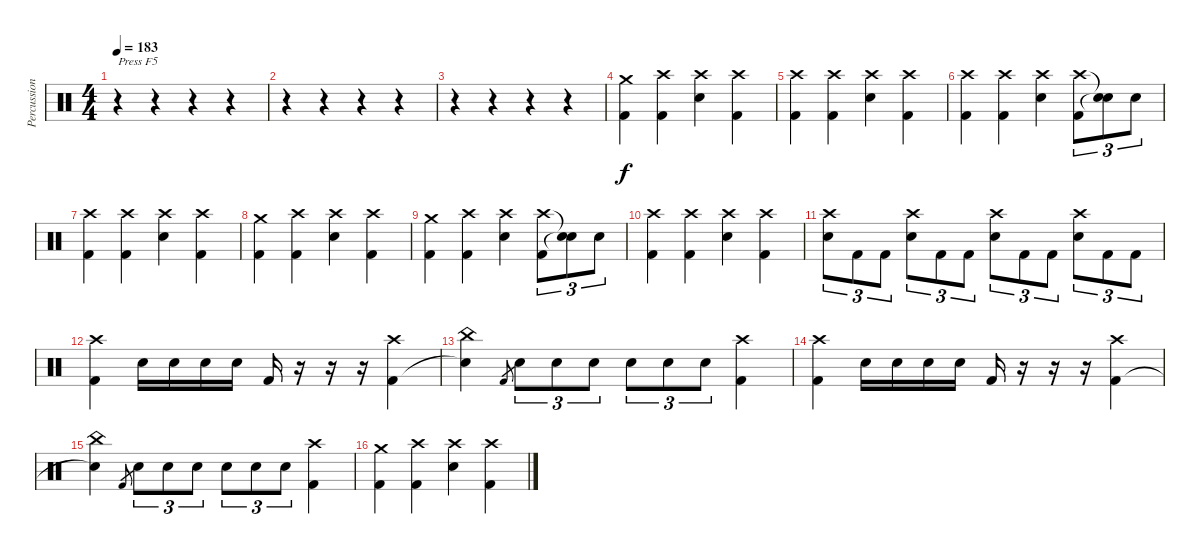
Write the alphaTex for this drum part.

\track ("Percussion" "Percussion") {instrument percussion}
\staff {score}
\articulation defaults
\ts (4 4)
\tempo 183
\clef neutral
\ks c
r.4{txt "Press F5" dy f} r.4 r.4 r.4 |
r.4 r.4 r.4 r.4 |
r.4 r.4 r.4 r.4 |
("Crash medium (hit)" "Kick (hit) 2").4 ("Crash high (hit)" "Kick (hit) 2").4 ("Crash high (hit)" "Electric Snare (hit)").4 ("Crash high (hit)" "Kick (hit) 2").4 |
("Crash high (hit)" "Kick (hit) 2").4 ("Crash high (hit)" "Kick (hit) 2").4 ("Crash high (hit)" "Electric Snare (hit)").4 ("Crash high (hit)" "Kick (hit) 2").4 |
("Crash high (hit)" "Kick (hit) 2").4 ("Crash high (hit)" "Kick (hit) 2").4 ("Crash high (hit)" "Electric Snare (hit)").4 ("Crash high (hit)" "Kick (hit) 2").8{tu (3 2)} ("Snare (hit)"{t} "Snare (hit)"{t}).8{tu (3 2)} "Electric Snare (hit)".8{tu (3 2)} |
("Crash high (hit)" "Kick (hit) 2").4 ("Crash high (hit)" "Kick (hit) 2").4 ("Crash high (hit)" "Electric Snare (hit)").4 ("Crash high (hit)" "Kick (hit) 2").4 |
("Crash medium (hit)" "Kick (hit) 2").4 ("Crash high (hit)" "Kick (hit) 2").4 ("Crash high (hit)" "Electric Snare (hit)").4 ("Crash high (hit)" "Kick (hit) 2").4 |
("Crash medium (hit)" "Kick (hit) 2").4 ("Crash high (hit)" "Kick (hit) 2").4 ("Crash high (hit)" "Electric Snare (hit)").4 ("Crash high (hit)" "Kick (hit) 2").8{tu (3 2)} ("Snare (hit)"{t} "Snare (hit)"{t}).8{tu (3 2)} "Electric Snare (hit)".8{tu (3 2)} |
("Crash high (hit)" "Kick (hit) 2").4 ("Crash high (hit)" "Kick (hit) 2").4 ("Crash high (hit)" "Electric Snare (hit)").4 ("Crash high (hit)" "Kick (hit) 2").4 |
("Crash high (hit)" "Electric Snare (hit)").8{tu (3 2)} "Kick (hit) 2".8{tu (3 2)} "Kick (hit) 2".8{tu (3 2)} ("Crash high (hit)" "Electric Snare (hit)").8{tu (3 2)} "Kick (hit) 2".8{tu (3 2)} "Kick (hit) 2".8{tu (3 2)} ("Crash high (hit)" "Electric Snare (hit)").8{tu (3 2)} "Kick (hit) 2".8{tu (3 2)} "Kick (hit) 2".8{tu (3 2)} ("Crash high (hit)" "Electric Snare (hit)").8{tu (3 2)} "Kick (hit) 2".8{tu (3 2)} "Kick (hit) 2".8{tu (3 2)} |
("Crash high (hit)" "Kick (hit) 2").4 "Electric Snare (hit)".16 "Electric Snare (hit)".16 "Electric Snare (hit)".16 "Electric Snare (hit)".16 "Kick (hit) 2".16 r.16 r.16 r.16 ("Crash high (hit)" "Kick (hit) 2").4 |
("China (hit)" "Snare (hit)"{t}).4 "Kick (hit) 2".8{gr} "Electric Snare (hit)".8{tu (3 2)} "Electric Snare (hit)".8{tu (3 2)} "Electric Snare (hit)".8{tu (3 2)} "Electric Snare (hit)".8{tu (3 2)} "Electric Snare (hit)".8{tu (3 2)} "Electric Snare (hit)".8{tu (3 2)} ("Crash high (hit)" "Kick (hit) 2").4 |
("Crash high (hit)" "Kick (hit) 2").4 "Electric Snare (hit)".16 "Electric Snare (hit)".16 "Electric Snare (hit)".16 "Electric Snare (hit)".16 "Kick (hit) 2".16 r.16 r.16 r.16 ("Crash high (hit)" "Kick (hit) 2").4 |
("China (hit)" "Snare (hit)"{t}).4 "Kick (hit) 2".8{gr} "Electric Snare (hit)".8{tu (3 2)} "Electric Snare (hit)".8{tu (3 2)} "Electric Snare (hit)".8{tu (3 2)} "Electric Snare (hit)".8{tu (3 2)} "Electric Snare (hit)".8{tu (3 2)} "Electric Snare (hit)".8{tu (3 2)} ("Crash high (hit)" "Kick (hit) 2").4 |
("Crash medium (hit)" "Kick (hit) 2").4 ("Crash high (hit)" "Kick (hit) 2").4 ("Crash high (hit)" "Electric Snare (hit)").4 ("Crash high (hit)" "Kick (hit) 2").4
